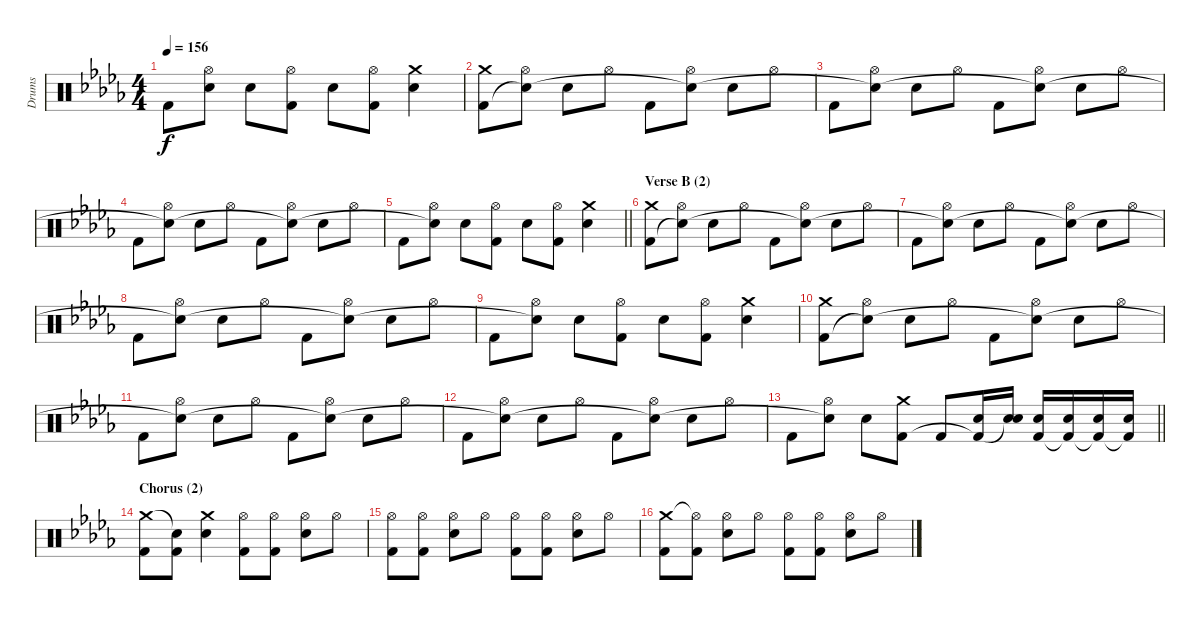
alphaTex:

\track ("Drums" "Drums") {instrument percussion}
\staff {score}
\articulation defaults
\ts (4 4)
\tempo 156
\clef neutral
\ks db "Kick (hit) 2".8{dy f}
("Hi-Hat (open)" "Snare (hit)"{t}).8 "Electric Snare (hit)".8 ("Hi-Hat (open)" "Kick (hit) 2").8 "Electric Snare (hit)".8 ("Hi-Hat (open)" "Kick (hit) 2").8 ("Crash medium (hit)" "Electric Snare (hit)").4 |
("Crash medium (hit)" "Kick (hit) 2").8 ("Hi-Hat (open)" "Snare (hit)"{t}).8 "Electric Snare (hit)".8 "Hi-Hat (open)".8 "Kick (hit) 2".8 ("Hi-Hat (open)" "Snare (hit)"{t}).8 "Electric Snare (hit)".8 "Hi-Hat (open)".8 |
"Kick (hit) 2".8 ("Hi-Hat (open)" "Snare (hit)"{t}).8 "Electric Snare (hit)".8 "Hi-Hat (open)".8 "Kick (hit) 2".8 ("Hi-Hat (open)" "Snare (hit)"{t}).8 "Electric Snare (hit)".8 "Hi-Hat (open)".8 |
"Kick (hit) 2".8 ("Hi-Hat (open)" "Snare (hit)"{t}).8 "Electric Snare (hit)".8 "Hi-Hat (open)".8 "Kick (hit) 2".8 ("Hi-Hat (open)" "Snare (hit)"{t}).8 "Electric Snare (hit)".8 "Hi-Hat (open)".8 |
\barLineRight lightlight "Kick (hit) 2".8
("Hi-Hat (open)" "Snare (hit)"{t}).8 "Electric Snare (hit)".8 ("Hi-Hat (open)" "Kick (hit) 2").8 "Electric Snare (hit)".8 ("Hi-Hat (open)" "Kick (hit) 2").8 ("Crash medium (hit)" "Electric Snare (hit)").4 |
\section ("" "Verse B (2)")
("Crash medium (hit)" "Kick (hit) 2").8 ("Hi-Hat (open)" "Snare (hit)"{t}).8 "Electric Snare (hit)".8 "Hi-Hat (open)".8 "Kick (hit) 2".8 ("Hi-Hat (open)" "Snare (hit)"{t}).8 "Electric Snare (hit)".8 "Hi-Hat (open)".8 |
"Kick (hit) 2".8 ("Hi-Hat (open)" "Snare (hit)"{t}).8 "Electric Snare (hit)".8 "Hi-Hat (open)".8 "Kick (hit) 2".8 ("Hi-Hat (open)" "Snare (hit)"{t}).8 "Electric Snare (hit)".8 "Hi-Hat (open)".8 |
"Kick (hit) 2".8 ("Hi-Hat (open)" "Snare (hit)"{t}).8 "Electric Snare (hit)".8 "Hi-Hat (open)".8 "Kick (hit) 2".8 ("Hi-Hat (open)" "Snare (hit)"{t}).8 "Electric Snare (hit)".8 "Hi-Hat (open)".8 |
"Kick (hit) 2".8 ("Hi-Hat (open)" "Snare (hit)"{t}).8 "Electric Snare (hit)".8 ("Hi-Hat (open)" "Kick (hit) 2").8 "Electric Snare (hit)".8 ("Hi-Hat (open)" "Kick (hit) 2").8 ("Crash medium (hit)" "Electric Snare (hit)").4 |
("Crash medium (hit)" "Kick (hit) 2").8 ("Hi-Hat (open)" "Snare (hit)"{t}).8 "Electric Snare (hit)".8 "Hi-Hat (open)".8 "Kick (hit) 2".8 ("Hi-Hat (open)" "Snare (hit)"{t}).8 "Electric Snare (hit)".8 "Hi-Hat (open)".8 |
"Kick (hit) 2".8 ("Hi-Hat (open)" "Snare (hit)"{t}).8 "Electric Snare (hit)".8 "Hi-Hat (open)".8 "Kick (hit) 2".8 ("Hi-Hat (open)" "Snare (hit)"{t}).8 "Electric Snare (hit)".8 "Hi-Hat (open)".8 |
"Kick (hit) 2".8 ("Hi-Hat (open)" "Snare (hit)"{t}).8 "Electric Snare (hit)".8 "Hi-Hat (open)".8 "Kick (hit) 2".8 ("Hi-Hat (open)" "Snare (hit)"{t}).8 "Electric Snare (hit)".8 "Hi-Hat (open)".8 |
\barLineRight lightlight "Kick (hit) 2".8
("Hi-Hat (open)" "Snare (hit)"{t}).8 "Electric Snare (hit)".8 ("Crash medium (hit)" "Kick (hit) 2").8 "Kick (hit) 2".8 ("Electric Snare (hit)" "Kick (hit) 2"{t}).16 ("Electric Snare (hit)" "Snare (hit)"{t}).16 ("Electric Snare (hit)" "Kick (hit) 2").16 ("Electric Snare (hit)" "Kick (hit) 2"{t}).16 ("Electric Snare (hit)" "Kick (hit) 2"{t}).16 ("Electric Snare (hit)" "Kick (hit) 2"{t}).16 |
\section ("" "Chorus (2)")
("Crash medium (hit)" "Kick (hit) 2").8 ("Snare (hit)"{t} "Kick (hit) 2").8 ("Crash medium (hit)" "Electric Snare (hit)").4 ("Hi-Hat (open)" "Kick (hit) 2").8 ("Hi-Hat (open)" "Kick (hit) 2").8 ("Hi-Hat (open)" "Electric Snare (hit)").8 "Hi-Hat (open)".8 |
("Hi-Hat (open)" "Kick (hit) 2").8 ("Hi-Hat (open)" "Kick (hit) 2").8 ("Hi-Hat (open)" "Electric Snare (hit)").8 "Hi-Hat (open)".8 ("Hi-Hat (open)" "Kick (hit) 2").8 ("Hi-Hat (open)" "Kick (hit) 2").8 ("Hi-Hat (open)" "Electric Snare (hit)").8 "Hi-Hat (open)".8 |
("Crash medium (hit)" "Kick (hit) 2").8 ("Hi-Hat (open)"{t} "Kick (hit) 2").8 ("Hi-Hat (open)" "Electric Snare (hit)").8 "Hi-Hat (open)".8 ("Hi-Hat (open)" "Kick (hit) 2").8 ("Hi-Hat (open)" "Kick (hit) 2").8 ("Hi-Hat (open)" "Electric Snare (hit)").8 "Hi-Hat (open)".8
